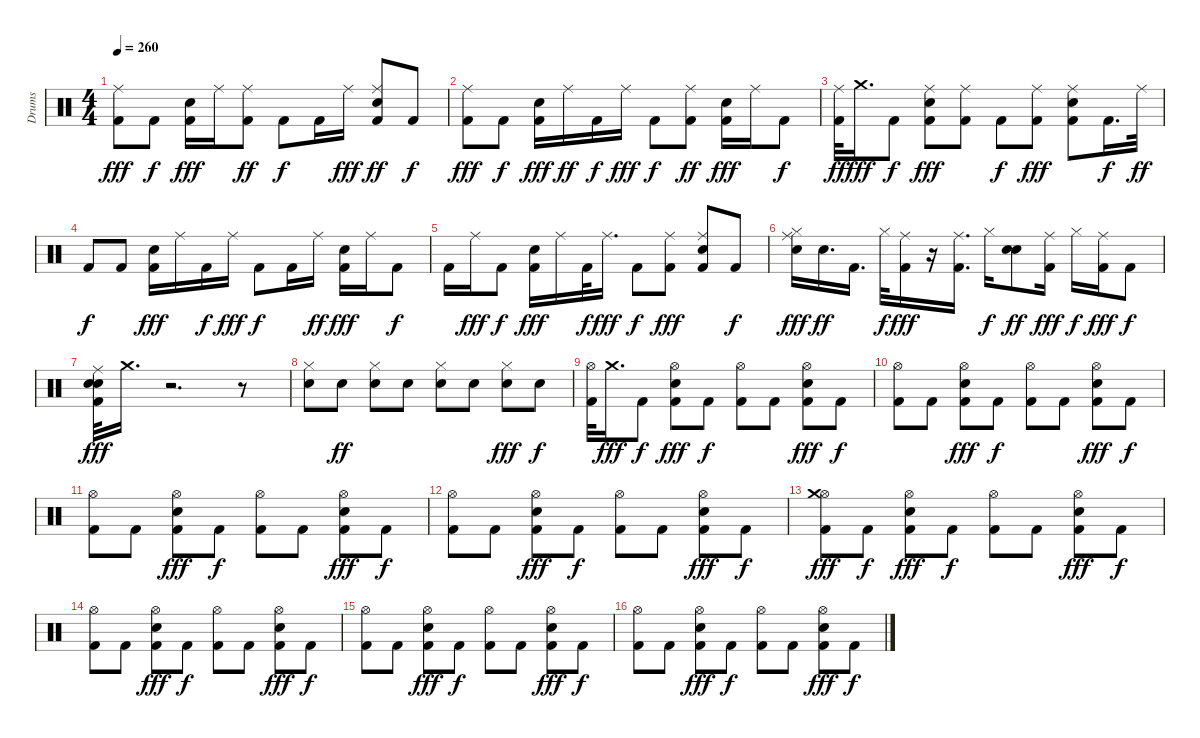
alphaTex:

\track ("Drums" "Drums") {instrument percussion}
\staff {score}
\articulation defaults
\ts (4 4)
\tempo 260
\clef neutral
\ks c
("Kick (hit) 2" "Ride (middle)").8{dy fff} "Kick (hit) 2".8{dy f} ("Snare (hit) 2" "Kick (hit) 2").16{dy fff} "Ride (middle)".16 ("Kick (hit) 2" "Ride (middle)").8{dy ff} "Kick (hit) 2".8{dy f} "Kick (hit) 2".16 "Ride (middle)".16{dy fff} ("Snare (hit) 2" "Kick (hit) 2" "Ride (middle)").8{dy ff} "Kick (hit) 2".8{dy f} |
("Kick (hit) 2" "Ride (middle)").8{dy fff} "Kick (hit) 2".8{dy f} ("Snare (hit) 2" "Kick (hit) 2").16{dy fff} "Ride (middle)".16{dy ff} "Kick (hit) 2".16{dy f} "Ride (middle)".16{dy fff} "Kick (hit) 2".8{dy f} ("Kick (hit) 2" "Ride (middle)").8{dy ff} ("Snare (hit) 2" "Kick (hit) 2").16{dy fff} "Ride (middle)".16 "Kick (hit) 2".8{dy f} |
("Ride (middle)" "Kick (hit) 2").32{dy ff} "Crash medium (hit)".16{d dy fff} "Kick (hit) 2".8{dy f} ("Snare (hit) 2" "Kick (hit) 2" "Ride (middle)").8{dy fff} ("Kick (hit) 2" "Ride (middle)").8 "Kick (hit) 2".8{dy f} ("Ride (middle)" "Kick (hit) 2").8{dy fff} ("Ride (middle)" "Snare (hit) 2" "Kick (hit) 2").8 "Kick (hit) 2".16{d dy f} "Ride (middle)".32{dy ff} |
"Kick (hit) 2".8{dy f} "Kick (hit) 2".8 ("Snare (hit) 2" "Kick (hit) 2").16{dy fff} "Ride (middle)".16 "Kick (hit) 2".16{dy f} "Ride (middle)".16{dy fff} "Kick (hit) 2".8{dy f} "Kick (hit) 2".16 "Ride (middle)".16{dy ff} ("Snare (hit) 2" "Kick (hit) 2").16{dy fff} "Ride (middle)".16 "Kick (hit) 2".8{dy f} |
"Kick (hit) 2".16 "Ride (middle)".16{dy fff} "Kick (hit) 2".8{dy f} ("Snare (hit) 2" "Kick (hit) 2").16{dy fff} "Ride (middle)".16 "Kick (hit) 2".32{dy f} "Ride (middle)".16{d dy fff} "Kick (hit) 2".8{dy f} ("Kick (hit) 2" "Ride (middle)").8{dy fff} ("Snare (hit) 2" "Kick (hit) 2" "Ride (middle)").8 "Kick (hit) 2".8{dy f} |
("Electric Snare (hit)" "Hi-Hat (closed)" "Ride (middle)").16{dy fff} "Snare (hit) 2".16{d dy ff} "Kick (hit) 2".16{d} "Hi-Hat (closed)".32{dy f} ("Ride (middle)" "Kick (hit) 2").16{dy fff} r.16 ("Ride (middle)" "Kick (hit) 2").16{d} "Hi-Hat (closed)".16{dy f} ("Electric Snare (hit)" "Snare (hit) 2").8{dy ff} ("Kick (hit) 2" "Ride (middle)").16{dy fff} "Hi-Hat (closed)".16{dy f} ("Kick (hit) 2" "Ride (middle)").16{dy fff} "Kick (hit) 2".8{dy f} |
("Kick (hit) 2" "Electric Snare (hit)" "Snare (hit) 2" "Ride (middle)").32{dy fff} "Crash medium (hit)".16{d} r.2{d} r.8 |
("Hi-Hat (closed)" "Snare (hit) 2").8 "Snare (hit) 2".8{dy ff} ("Hi-Hat (closed)" "Snare (hit) 2").8 "Snare (hit) 2".8 ("Hi-Hat (closed)" "Snare (hit) 2").8 "Snare (hit) 2".8 ("Hi-Hat (closed)" "Snare (hit) 2").8{dy fff} "Snare (hit) 2".8{dy f} |
("Hi-Hat (open)" "Kick (hit) 2").32 "Crash medium (hit)".16{d dy fff} "Kick (hit) 2".8{dy f} ("Hi-Hat (open)" "Snare (hit) 2" "Kick (hit) 2").8{dy fff} "Kick (hit) 2".8{dy f} ("Hi-Hat (open)" "Kick (hit) 2").8 "Kick (hit) 2".8 ("Hi-Hat (open)" "Snare (hit) 2" "Kick (hit) 2").8{dy fff} "Kick (hit) 2".8{dy f} |
("Hi-Hat (open)" "Kick (hit) 2").8 "Kick (hit) 2".8 ("Hi-Hat (open)" "Snare (hit) 2" "Kick (hit) 2").8{dy fff} "Kick (hit) 2".8{dy f} ("Hi-Hat (open)" "Kick (hit) 2").8 "Kick (hit) 2".8 ("Hi-Hat (open)" "Snare (hit) 2" "Kick (hit) 2").8{dy fff} "Kick (hit) 2".8{dy f} |
("Hi-Hat (open)" "Kick (hit) 2").8 "Kick (hit) 2".8 ("Hi-Hat (open)" "Snare (hit) 2" "Kick (hit) 2").8{dy fff} "Kick (hit) 2".8{dy f} ("Hi-Hat (open)" "Kick (hit) 2").8 "Kick (hit) 2".8 ("Hi-Hat (open)" "Snare (hit) 2" "Kick (hit) 2").8{dy fff} "Kick (hit) 2".8{dy f} |
("Hi-Hat (open)" "Kick (hit) 2").8 "Kick (hit) 2".8 ("Hi-Hat (open)" "Snare (hit) 2" "Kick (hit) 2").8{dy fff} "Kick (hit) 2".8{dy f} ("Hi-Hat (open)" "Kick (hit) 2").8 "Kick (hit) 2".8 ("Hi-Hat (open)" "Snare (hit) 2" "Kick (hit) 2").8{dy fff} "Kick (hit) 2".8{dy f} |
("Hi-Hat (open)" "Kick (hit) 2" "Crash medium (hit)").8{dy fff} "Kick (hit) 2".8{dy f} ("Hi-Hat (open)" "Snare (hit) 2" "Kick (hit) 2").8{dy fff} "Kick (hit) 2".8{dy f} ("Hi-Hat (open)" "Kick (hit) 2").8 "Kick (hit) 2".8 ("Hi-Hat (open)" "Snare (hit) 2" "Kick (hit) 2").8{dy fff} "Kick (hit) 2".8{dy f} |
("Hi-Hat (open)" "Kick (hit) 2").8 "Kick (hit) 2".8 ("Hi-Hat (open)" "Snare (hit) 2" "Kick (hit) 2").8{dy fff} "Kick (hit) 2".8{dy f} ("Hi-Hat (open)" "Kick (hit) 2").8 "Kick (hit) 2".8 ("Hi-Hat (open)" "Snare (hit) 2" "Kick (hit) 2").8{dy fff} "Kick (hit) 2".8{dy f} |
("Hi-Hat (open)" "Kick (hit) 2").8 "Kick (hit) 2".8 ("Hi-Hat (open)" "Snare (hit) 2" "Kick (hit) 2").8{dy fff} "Kick (hit) 2".8{dy f} ("Hi-Hat (open)" "Kick (hit) 2").8 "Kick (hit) 2".8 ("Hi-Hat (open)" "Snare (hit) 2" "Kick (hit) 2").8{dy fff} "Kick (hit) 2".8{dy f} |
("Hi-Hat (open)" "Kick (hit) 2").8 "Kick (hit) 2".8 ("Hi-Hat (open)" "Snare (hit) 2" "Kick (hit) 2").8{dy fff} "Kick (hit) 2".8{dy f} ("Hi-Hat (open)" "Kick (hit) 2").8 "Kick (hit) 2".8 ("Hi-Hat (open)" "Snare (hit) 2" "Kick (hit) 2").8{dy fff} "Kick (hit) 2".8{dy f}
